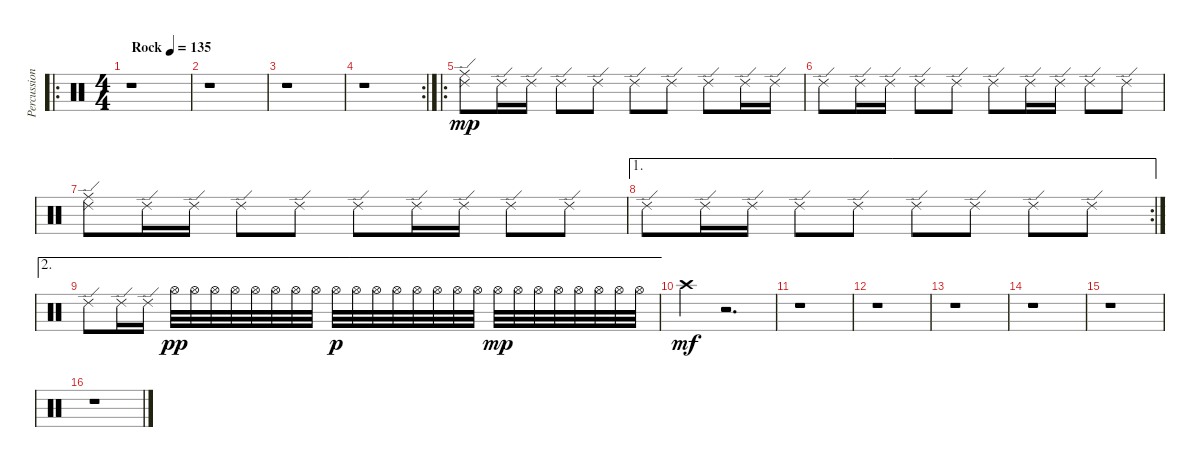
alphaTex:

\track ("Percussion" "Percussion") {instrument percussion}
\staff {score}
\articulation defaults
\ro
\ts (4 4)
\tempo (135 "Rock")
\clef neutral
\ks c
r.1{dy mp} |
r.1 |
r.1 |
\rc 2
r.1 |
\ro
("Ride (middle)" "Ride (edge) 2").8 "Ride (edge) 2".16 "Ride (edge) 2".16 "Ride (edge) 2".8 "Ride (edge) 2".8 "Ride (edge) 2".8 "Ride (edge) 2".8 "Ride (edge) 2".8 "Ride (edge) 2".16 "Ride (edge) 2".16 |
"Ride (edge) 2".8 "Ride (edge) 2".16 "Ride (edge) 2".16 "Ride (edge) 2".8 "Ride (edge) 2".8 "Ride (edge) 2".8 "Ride (edge) 2".16 "Ride (edge) 2".16 "Ride (edge) 2".8 "Ride (edge) 2".8 |
("Ride (middle)" "Ride (edge) 2").8 "Ride (edge) 2".16 "Ride (edge) 2".16 "Ride (edge) 2".8 "Ride (edge) 2".8 "Ride (edge) 2".8 "Ride (edge) 2".16 "Ride (edge) 2".16 "Ride (edge) 2".8 "Ride (edge) 2".8 |
\ae 1
\rc 2 "Ride (edge) 2".8 "Ride (edge) 2".16 "Ride (edge) 2".16 "Ride (edge) 2".8 "Ride (edge) 2".8 "Ride (edge) 2".8 "Ride (edge) 2".8 "Ride (edge) 2".8 "Ride (edge) 2".8
|
\ae 2 "Ride (edge) 2".8 "Ride (edge) 2".16 "Ride (edge) 2".16 "Hi-Hat (open)".32{dy pp} "Hi-Hat (open)".32 "Hi-Hat (open)".32 "Hi-Hat (open)".32 "Hi-Hat (open)".32 "Hi-Hat (open)".32 "Hi-Hat (open)".32 "Hi-Hat (open)".32 "Hi-Hat (open)".32{dy p} "Hi-Hat (open)".32 "Hi-Hat (open)".32 "Hi-Hat (open)".32 "Hi-Hat (open)".32 "Hi-Hat (open)".32 "Hi-Hat (open)".32 "Hi-Hat (open)".32 "Hi-Hat (open)".32{dy mp} "Hi-Hat (open)".32 "Hi-Hat (open)".32 "Hi-Hat (open)".32 "Hi-Hat (open)".32 "Hi-Hat (open)".32 "Hi-Hat (open)".32 "Hi-Hat (open)".32
|
"Crash high (hit)".4{dy mf} r.2{d} |
r.1 |
r.1 |
r.1 |
r.1 |
r.1 |
r.1
